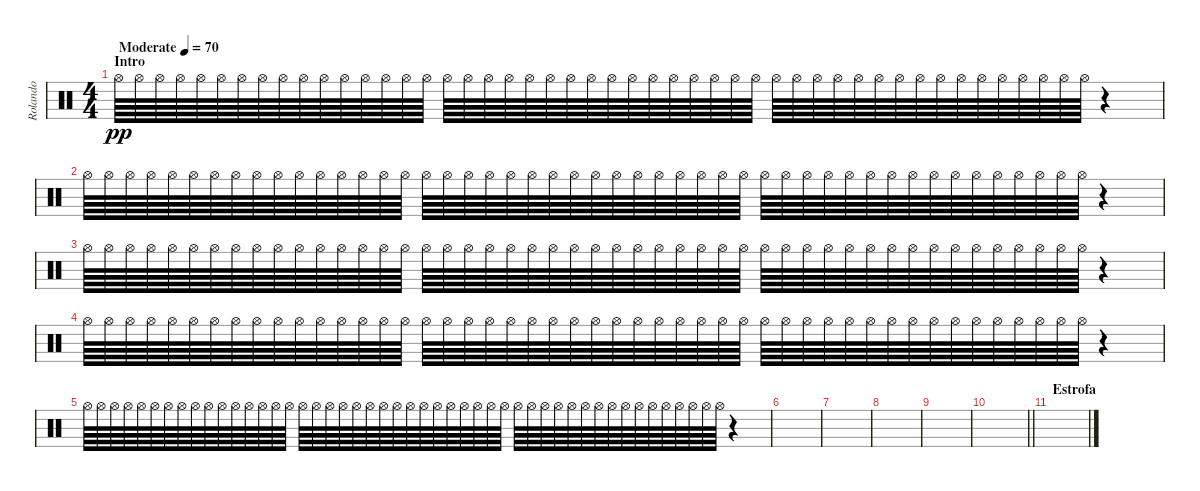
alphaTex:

\track ("Rolando" "Rolando") {instrument percussion}
\staff {score}
\articulation defaults
\ts (4 4)
\section ("" "Intro")
\tempo (70 "Moderate")
\clef neutral
\ks c "Hi-Hat (open)".64{dy pp volume 6} "Hi-Hat (open)".64 "Hi-Hat (open)".64 "Hi-Hat (open)".64 "Hi-Hat (open)".64 "Hi-Hat (open)".64 "Hi-Hat (open)".64 "Hi-Hat (open)".64 "Hi-Hat (open)".64 "Hi-Hat (open)".64 "Hi-Hat (open)".64 "Hi-Hat (open)".64 "Hi-Hat (open)".64 "Hi-Hat (open)".64 "Hi-Hat (open)".64 "Hi-Hat (open)".64 "Hi-Hat (open)".64 "Hi-Hat (open)".64 "Hi-Hat (open)".64 "Hi-Hat (open)".64 "Hi-Hat (open)".64 "Hi-Hat (open)".64 "Hi-Hat (open)".64 "Hi-Hat (open)".64 "Hi-Hat (open)".64 "Hi-Hat (open)".64 "Hi-Hat (open)".64 "Hi-Hat (open)".64 "Hi-Hat (open)".64 "Hi-Hat (open)".64 "Hi-Hat (open)".64 "Hi-Hat (open)".64 "Hi-Hat (open)".64 "Hi-Hat (open)".64 "Hi-Hat (open)".64 "Hi-Hat (open)".64 "Hi-Hat (open)".64 "Hi-Hat (open)".64 "Hi-Hat (open)".64 "Hi-Hat (open)".64 "Hi-Hat (open)".64 "Hi-Hat (open)".64 "Hi-Hat (open)".64 "Hi-Hat (open)".64 "Hi-Hat (open)".64 "Hi-Hat (open)".64 "Hi-Hat (open)".64 "Hi-Hat (open)".64
r.4 |
"Hi-Hat (open)".64 "Hi-Hat (open)".64 "Hi-Hat (open)".64 "Hi-Hat (open)".64 "Hi-Hat (open)".64 "Hi-Hat (open)".64 "Hi-Hat (open)".64 "Hi-Hat (open)".64 "Hi-Hat (open)".64 "Hi-Hat (open)".64 "Hi-Hat (open)".64 "Hi-Hat (open)".64 "Hi-Hat (open)".64 "Hi-Hat (open)".64 "Hi-Hat (open)".64 "Hi-Hat (open)".64 "Hi-Hat (open)".64 "Hi-Hat (open)".64 "Hi-Hat (open)".64 "Hi-Hat (open)".64 "Hi-Hat (open)".64 "Hi-Hat (open)".64 "Hi-Hat (open)".64 "Hi-Hat (open)".64 "Hi-Hat (open)".64 "Hi-Hat (open)".64 "Hi-Hat (open)".64 "Hi-Hat (open)".64 "Hi-Hat (open)".64 "Hi-Hat (open)".64 "Hi-Hat (open)".64 "Hi-Hat (open)".64 "Hi-Hat (open)".64 "Hi-Hat (open)".64 "Hi-Hat (open)".64 "Hi-Hat (open)".64 "Hi-Hat (open)".64 "Hi-Hat (open)".64 "Hi-Hat (open)".64 "Hi-Hat (open)".64 "Hi-Hat (open)".64 "Hi-Hat (open)".64 "Hi-Hat (open)".64 "Hi-Hat (open)".64 "Hi-Hat (open)".64 "Hi-Hat (open)".64 "Hi-Hat (open)".64 "Hi-Hat (open)".64 r.4 |
"Hi-Hat (open)".64 "Hi-Hat (open)".64 "Hi-Hat (open)".64 "Hi-Hat (open)".64 "Hi-Hat (open)".64 "Hi-Hat (open)".64 "Hi-Hat (open)".64 "Hi-Hat (open)".64 "Hi-Hat (open)".64 "Hi-Hat (open)".64 "Hi-Hat (open)".64 "Hi-Hat (open)".64 "Hi-Hat (open)".64 "Hi-Hat (open)".64 "Hi-Hat (open)".64 "Hi-Hat (open)".64 "Hi-Hat (open)".64 "Hi-Hat (open)".64 "Hi-Hat (open)".64 "Hi-Hat (open)".64 "Hi-Hat (open)".64 "Hi-Hat (open)".64 "Hi-Hat (open)".64 "Hi-Hat (open)".64 "Hi-Hat (open)".64 "Hi-Hat (open)".64 "Hi-Hat (open)".64 "Hi-Hat (open)".64 "Hi-Hat (open)".64 "Hi-Hat (open)".64 "Hi-Hat (open)".64 "Hi-Hat (open)".64 "Hi-Hat (open)".64 "Hi-Hat (open)".64 "Hi-Hat (open)".64 "Hi-Hat (open)".64 "Hi-Hat (open)".64 "Hi-Hat (open)".64 "Hi-Hat (open)".64 "Hi-Hat (open)".64 "Hi-Hat (open)".64 "Hi-Hat (open)".64 "Hi-Hat (open)".64 "Hi-Hat (open)".64 "Hi-Hat (open)".64 "Hi-Hat (open)".64 "Hi-Hat (open)".64 "Hi-Hat (open)".64 r.4 |
"Hi-Hat (open)".64 "Hi-Hat (open)".64 "Hi-Hat (open)".64 "Hi-Hat (open)".64 "Hi-Hat (open)".64 "Hi-Hat (open)".64 "Hi-Hat (open)".64 "Hi-Hat (open)".64 "Hi-Hat (open)".64 "Hi-Hat (open)".64 "Hi-Hat (open)".64 "Hi-Hat (open)".64 "Hi-Hat (open)".64 "Hi-Hat (open)".64 "Hi-Hat (open)".64 "Hi-Hat (open)".64 "Hi-Hat (open)".64 "Hi-Hat (open)".64 "Hi-Hat (open)".64 "Hi-Hat (open)".64 "Hi-Hat (open)".64 "Hi-Hat (open)".64 "Hi-Hat (open)".64 "Hi-Hat (open)".64 "Hi-Hat (open)".64 "Hi-Hat (open)".64 "Hi-Hat (open)".64 "Hi-Hat (open)".64 "Hi-Hat (open)".64 "Hi-Hat (open)".64 "Hi-Hat (open)".64 "Hi-Hat (open)".64 "Hi-Hat (open)".64 "Hi-Hat (open)".64 "Hi-Hat (open)".64 "Hi-Hat (open)".64 "Hi-Hat (open)".64 "Hi-Hat (open)".64 "Hi-Hat (open)".64 "Hi-Hat (open)".64 "Hi-Hat (open)".64 "Hi-Hat (open)".64 "Hi-Hat (open)".64 "Hi-Hat (open)".64 "Hi-Hat (open)".64 "Hi-Hat (open)".64 "Hi-Hat (open)".64 "Hi-Hat (open)".64 r.4 |
"Hi-Hat (open)".64 "Hi-Hat (open)".64 "Hi-Hat (open)".64 "Hi-Hat (open)".64 "Hi-Hat (open)".64 "Hi-Hat (open)".64 "Hi-Hat (open)".64 "Hi-Hat (open)".64 "Hi-Hat (open)".64 "Hi-Hat (open)".64 "Hi-Hat (open)".64 "Hi-Hat (open)".64 "Hi-Hat (open)".64 "Hi-Hat (open)".64 "Hi-Hat (open)".64 "Hi-Hat (open)".64 "Hi-Hat (open)".64 "Hi-Hat (open)".64 "Hi-Hat (open)".64 "Hi-Hat (open)".64 "Hi-Hat (open)".64 "Hi-Hat (open)".64 "Hi-Hat (open)".64 "Hi-Hat (open)".64 "Hi-Hat (open)".64 "Hi-Hat (open)".64 "Hi-Hat (open)".64 "Hi-Hat (open)".64 "Hi-Hat (open)".64 "Hi-Hat (open)".64 "Hi-Hat (open)".64 "Hi-Hat (open)".64 "Hi-Hat (open)".64 "Hi-Hat (open)".64 "Hi-Hat (open)".64 "Hi-Hat (open)".64 "Hi-Hat (open)".64 "Hi-Hat (open)".64 "Hi-Hat (open)".64 "Hi-Hat (open)".64 "Hi-Hat (open)".64 "Hi-Hat (open)".64 "Hi-Hat (open)".64 "Hi-Hat (open)".64 "Hi-Hat (open)".64 "Hi-Hat (open)".64 "Hi-Hat (open)".64 "Hi-Hat (open)".64 r.4 |
|
|
|
|
\barLineRight lightlight
|
\section ("" "Estrofa")
